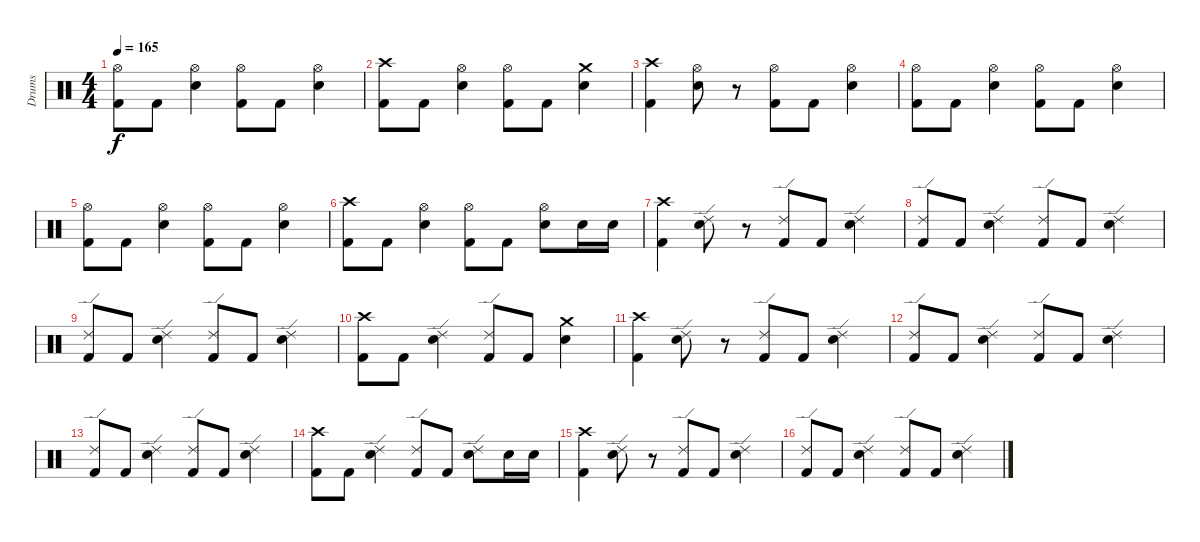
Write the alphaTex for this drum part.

\track ("Drums" "Drums") {instrument percussion}
\staff {score}
\articulation defaults
\ts (4 4)
\tempo 165
\clef neutral
\ks c
("Hi-Hat (open)" "Kick (hit) 2").8{dy f} "Kick (hit) 2".8 ("Hi-Hat (open)" "Electric Snare (hit)").4 ("Hi-Hat (open)" "Kick (hit) 2").8 "Kick (hit) 2".8 ("Hi-Hat (open)" "Electric Snare (hit)").4 |
("Crash high (hit)" "Kick (hit) 2").8 "Kick (hit) 2".8 ("Hi-Hat (open)" "Electric Snare (hit)").4 ("Hi-Hat (open)" "Kick (hit) 2").8 "Kick (hit) 2".8 ("Crash medium (hit)" "Electric Snare (hit)").4 |
("Crash high (hit)" "Kick (hit) 2").4 ("Hi-Hat (open)" "Electric Snare (hit)").8 r.8 ("Hi-Hat (open)" "Kick (hit) 2").8 "Kick (hit) 2".8 ("Hi-Hat (open)" "Electric Snare (hit)").4 |
("Hi-Hat (open)" "Kick (hit) 2").8 "Kick (hit) 2".8 ("Hi-Hat (open)" "Electric Snare (hit)").4 ("Hi-Hat (open)" "Kick (hit) 2").8 "Kick (hit) 2".8 ("Hi-Hat (open)" "Electric Snare (hit)").4 |
("Hi-Hat (open)" "Kick (hit) 2").8 "Kick (hit) 2".8 ("Hi-Hat (open)" "Electric Snare (hit)").4 ("Hi-Hat (open)" "Kick (hit) 2").8 "Kick (hit) 2".8 ("Hi-Hat (open)" "Electric Snare (hit)").4 |
("Crash high (hit)" "Kick (hit) 2").8 "Kick (hit) 2".8 ("Hi-Hat (open)" "Electric Snare (hit)").4 ("Hi-Hat (open)" "Kick (hit) 2").8 "Kick (hit) 2".8 ("Hi-Hat (open)" "Electric Snare (hit)").8 "Electric Snare (hit)".16 "Electric Snare (hit)".16 |
("Crash high (hit)" "Kick (hit) 2").4 ("Ride (edge) 2" "Electric Snare (hit)").8 r.8 ("Ride (edge) 2" "Kick (hit) 2").8 "Kick (hit) 2".8 ("Ride (edge) 2" "Electric Snare (hit)").4 |
("Ride (edge) 2" "Kick (hit) 2").8 "Kick (hit) 2".8 ("Ride (edge) 2" "Electric Snare (hit)").4 ("Ride (edge) 2" "Kick (hit) 2").8 "Kick (hit) 2".8 ("Ride (edge) 2" "Electric Snare (hit)").4 |
("Ride (edge) 2" "Kick (hit) 2").8 "Kick (hit) 2".8 ("Ride (edge) 2" "Electric Snare (hit)").4 ("Ride (edge) 2" "Kick (hit) 2").8 "Kick (hit) 2".8 ("Ride (edge) 2" "Electric Snare (hit)").4 |
("Crash high (hit)" "Kick (hit) 2").8 "Kick (hit) 2".8 ("Ride (edge) 2" "Electric Snare (hit)").4 ("Ride (edge) 2" "Kick (hit) 2").8 "Kick (hit) 2".8 ("Crash medium (hit)" "Electric Snare (hit)").4 |
("Crash high (hit)" "Kick (hit) 2").4 ("Ride (edge) 2" "Electric Snare (hit)").8 r.8 ("Ride (edge) 2" "Kick (hit) 2").8 "Kick (hit) 2".8 ("Ride (edge) 2" "Electric Snare (hit)").4 |
("Ride (edge) 2" "Kick (hit) 2").8 "Kick (hit) 2".8 ("Ride (edge) 2" "Electric Snare (hit)").4 ("Ride (edge) 2" "Kick (hit) 2").8 "Kick (hit) 2".8 ("Ride (edge) 2" "Electric Snare (hit)").4 |
("Ride (edge) 2" "Kick (hit) 2").8 "Kick (hit) 2".8 ("Ride (edge) 2" "Electric Snare (hit)").4 ("Ride (edge) 2" "Kick (hit) 2").8 "Kick (hit) 2".8 ("Ride (edge) 2" "Electric Snare (hit)").4 |
("Crash high (hit)" "Kick (hit) 2").8 "Kick (hit) 2".8 ("Ride (edge) 2" "Electric Snare (hit)").4 ("Ride (edge) 2" "Kick (hit) 2").8 "Kick (hit) 2".8 ("Ride (edge) 2" "Electric Snare (hit)").8 "Electric Snare (hit)".16 "Electric Snare (hit)".16 |
("Crash high (hit)" "Kick (hit) 2").4 ("Ride (edge) 2" "Electric Snare (hit)").8 r.8 ("Ride (edge) 2" "Kick (hit) 2").8 "Kick (hit) 2".8 ("Ride (edge) 2" "Electric Snare (hit)").4 |
("Ride (edge) 2" "Kick (hit) 2").8 "Kick (hit) 2".8 ("Ride (edge) 2" "Electric Snare (hit)").4 ("Ride (edge) 2" "Kick (hit) 2").8 "Kick (hit) 2".8 ("Ride (edge) 2" "Electric Snare (hit)").4
